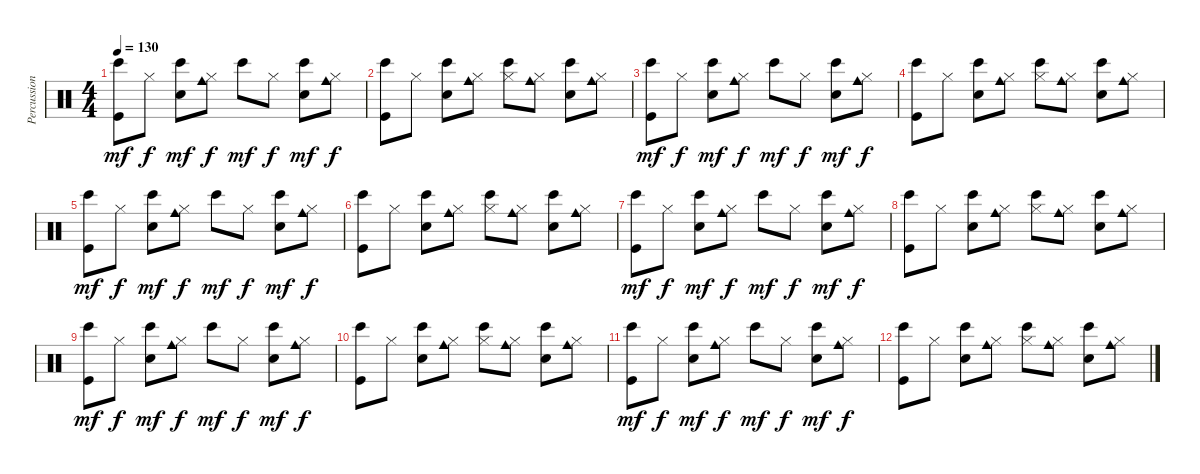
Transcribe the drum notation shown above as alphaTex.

\track ("Percussions" "Percussion") {instrument percussion}
\staff {score}
\articulation defaults
\ts (4 4)
\tempo 130
\clef neutral
\ks c
("Bongo High (hit)" "Kick (hit)").8{dy mf} "Hi-Hat (closed)".8{dy f} ("Bongo High (hit)" "Electric Snare (hit)").8{dy mf} ("Hi-Hat (closed)" "Cowbell medium (hit)").8{dy f} "Bongo High (hit)".8{dy mf} "Hi-Hat (closed)".8{dy f} ("Bongo High (hit)" "Electric Snare (hit)").8{dy mf} ("Hi-Hat (closed)" "Cowbell medium (hit)").8{dy f} |
("Bongo High (hit)" "Kick (hit)").8 "Hi-Hat (closed)".8 ("Bongo High (hit)" "Electric Snare (hit)").8 ("Hi-Hat (closed)" "Cowbell medium (hit)").8 ("Hi-Hat (closed)" "Bongo High (hit)").8 ("Hi-Hat (closed)" "Cowbell medium (hit)").8 ("Bongo High (hit)" "Electric Snare (hit)").8 ("Hi-Hat (closed)" "Cowbell medium (hit)").8 |
("Bongo High (hit)" "Kick (hit)").8{dy mf} "Hi-Hat (closed)".8{dy f} ("Bongo High (hit)" "Electric Snare (hit)").8{dy mf} ("Hi-Hat (closed)" "Cowbell medium (hit)").8{dy f} "Bongo High (hit)".8{dy mf} "Hi-Hat (closed)".8{dy f} ("Bongo High (hit)" "Electric Snare (hit)").8{dy mf} ("Hi-Hat (closed)" "Cowbell medium (hit)").8{dy f} |
("Bongo High (hit)" "Kick (hit)").8 "Hi-Hat (closed)".8 ("Bongo High (hit)" "Electric Snare (hit)").8 ("Hi-Hat (closed)" "Cowbell medium (hit)").8 ("Hi-Hat (closed)" "Bongo High (hit)").8 ("Hi-Hat (closed)" "Cowbell medium (hit)").8 ("Bongo High (hit)" "Electric Snare (hit)").8 ("Hi-Hat (closed)" "Cowbell medium (hit)").8 |
("Bongo High (hit)" "Kick (hit)").8{dy mf} "Hi-Hat (closed)".8{dy f} ("Bongo High (hit)" "Electric Snare (hit)").8{dy mf} ("Hi-Hat (closed)" "Cowbell medium (hit)").8{dy f} "Bongo High (hit)".8{dy mf} "Hi-Hat (closed)".8{dy f} ("Bongo High (hit)" "Electric Snare (hit)").8{dy mf} ("Hi-Hat (closed)" "Cowbell medium (hit)").8{dy f} |
("Bongo High (hit)" "Kick (hit)").8 "Hi-Hat (closed)".8 ("Bongo High (hit)" "Electric Snare (hit)").8 ("Hi-Hat (closed)" "Cowbell medium (hit)").8 ("Hi-Hat (closed)" "Bongo High (hit)").8 ("Hi-Hat (closed)" "Cowbell medium (hit)").8 ("Bongo High (hit)" "Electric Snare (hit)").8 ("Hi-Hat (closed)" "Cowbell medium (hit)").8 |
("Bongo High (hit)" "Kick (hit)").8{dy mf} "Hi-Hat (closed)".8{dy f} ("Bongo High (hit)" "Electric Snare (hit)").8{dy mf} ("Hi-Hat (closed)" "Cowbell medium (hit)").8{dy f} "Bongo High (hit)".8{dy mf} "Hi-Hat (closed)".8{dy f} ("Bongo High (hit)" "Electric Snare (hit)").8{dy mf} ("Hi-Hat (closed)" "Cowbell medium (hit)").8{dy f} |
("Bongo High (hit)" "Kick (hit)").8 "Hi-Hat (closed)".8 ("Bongo High (hit)" "Electric Snare (hit)").8 ("Hi-Hat (closed)" "Cowbell medium (hit)").8 ("Hi-Hat (closed)" "Bongo High (hit)").8 ("Hi-Hat (closed)" "Cowbell medium (hit)").8 ("Bongo High (hit)" "Electric Snare (hit)").8 ("Hi-Hat (closed)" "Cowbell medium (hit)").8 |
("Bongo High (hit)" "Kick (hit)").8{dy mf} "Hi-Hat (closed)".8{dy f} ("Bongo High (hit)" "Electric Snare (hit)").8{dy mf} ("Hi-Hat (closed)" "Cowbell medium (hit)").8{dy f} "Bongo High (hit)".8{dy mf} "Hi-Hat (closed)".8{dy f} ("Bongo High (hit)" "Electric Snare (hit)").8{dy mf} ("Hi-Hat (closed)" "Cowbell medium (hit)").8{dy f} |
("Bongo High (hit)" "Kick (hit)").8 "Hi-Hat (closed)".8 ("Bongo High (hit)" "Electric Snare (hit)").8 ("Hi-Hat (closed)" "Cowbell medium (hit)").8 ("Hi-Hat (closed)" "Bongo High (hit)").8 ("Hi-Hat (closed)" "Cowbell medium (hit)").8 ("Bongo High (hit)" "Electric Snare (hit)").8 ("Hi-Hat (closed)" "Cowbell medium (hit)").8 |
("Bongo High (hit)" "Kick (hit)").8{dy mf} "Hi-Hat (closed)".8{dy f} ("Bongo High (hit)" "Electric Snare (hit)").8{dy mf} ("Hi-Hat (closed)" "Cowbell medium (hit)").8{dy f} "Bongo High (hit)".8{dy mf} "Hi-Hat (closed)".8{dy f} ("Bongo High (hit)" "Electric Snare (hit)").8{dy mf} ("Hi-Hat (closed)" "Cowbell medium (hit)").8{dy f} |
("Bongo High (hit)" "Kick (hit)").8 "Hi-Hat (closed)".8 ("Bongo High (hit)" "Electric Snare (hit)").8 ("Hi-Hat (closed)" "Cowbell medium (hit)").8 ("Hi-Hat (closed)" "Bongo High (hit)").8 ("Hi-Hat (closed)" "Cowbell medium (hit)").8 ("Bongo High (hit)" "Electric Snare (hit)").8 ("Hi-Hat (closed)" "Cowbell medium (hit)").8
